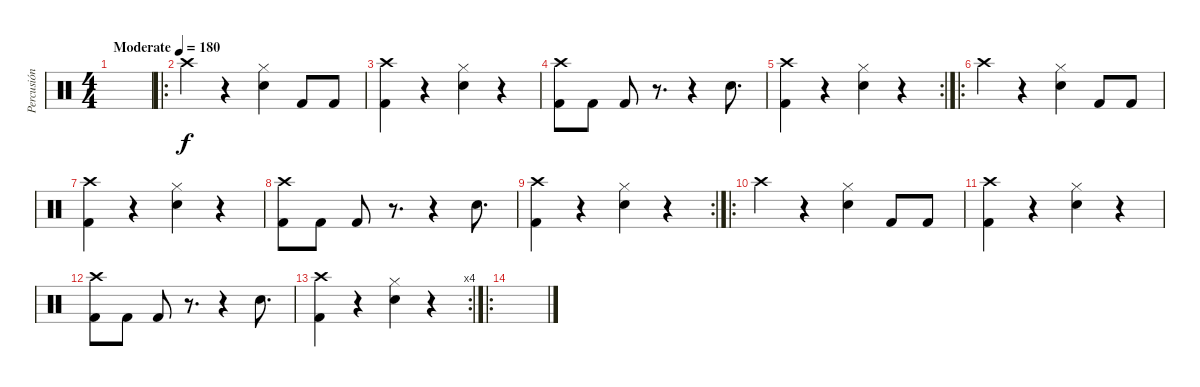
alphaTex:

\track ("Percusión" "Percusión") {instrument percussion}
\staff {score}
\articulation defaults
\ts (4 4)
\tempo (180 "Moderate")
\clef neutral
\ks c
|
\ro "Crash high (hit)".4
r.4 ("Hi-Hat (closed)" "Electric Snare (hit)").4 "Kick (hit) 2".8 "Kick (hit) 2".8 |
("Crash high (hit)" "Kick (hit) 2").4 r.4 ("Hi-Hat (closed)" "Electric Snare (hit)").4 r.4 |
("Crash high (hit)" "Kick (hit) 2").8 "Kick (hit) 2".8 "Kick (hit) 2".8 r.8{d} r.4 "Electric Snare (hit)".8{d} |
\rc 2
("Crash high (hit)" "Kick (hit) 2").4 r.4 ("Hi-Hat (closed)" "Electric Snare (hit)").4 r.4 |
\ro "Crash high (hit)".4
r.4 ("Hi-Hat (closed)" "Electric Snare (hit)").4 "Kick (hit) 2".8 "Kick (hit) 2".8 |
("Crash high (hit)" "Kick (hit) 2").4 r.4 ("Hi-Hat (closed)" "Electric Snare (hit)").4 r.4 |
("Crash high (hit)" "Kick (hit) 2").8 "Kick (hit) 2".8 "Kick (hit) 2".8 r.8{d} r.4 "Electric Snare (hit)".8{d} |
\rc 2
("Crash high (hit)" "Kick (hit) 2").4 r.4 ("Hi-Hat (closed)" "Electric Snare (hit)").4 r.4 |
\ro "Crash high (hit)".4
r.4 ("Hi-Hat (closed)" "Electric Snare (hit)").4 "Kick (hit) 2".8 "Kick (hit) 2".8 |
("Crash high (hit)" "Kick (hit) 2").4 r.4 ("Hi-Hat (closed)" "Electric Snare (hit)").4 r.4 |
("Crash high (hit)" "Kick (hit) 2").8 "Kick (hit) 2".8 "Kick (hit) 2".8 r.8{d} r.4 "Electric Snare (hit)".8{d} |
\rc 4
("Crash high (hit)" "Kick (hit) 2").4 r.4 ("Hi-Hat (closed)" "Electric Snare (hit)").4 r.4 |
\ro
